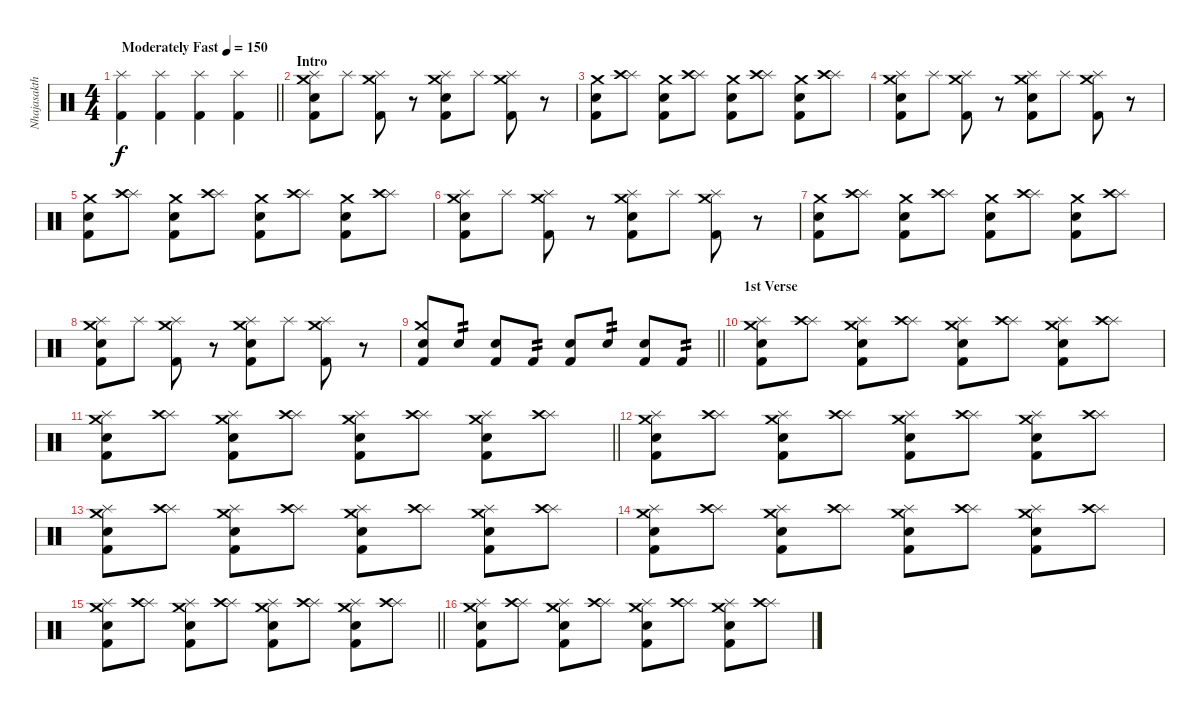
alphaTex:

\track ("Nhajasakthee" "Nhajasakth") {instrument percussion}
\staff {score}
\articulation defaults
\ts (4 4)
\tempo (150 "Moderately Fast")
\clef neutral
\barLineRight lightlight
\ks c
("Splash (hit)" "Kick (hit) 2").4{dy f} ("Splash (hit)" "Kick (hit) 2").4 ("Splash (hit)" "Kick (hit) 2").4 ("Splash (hit)" "Kick (hit) 2").4 |
\section ("" "Intro")
("Splash (hit)" "Crash medium (hit)" "Kick (hit) 2" "Electric Snare (hit)").8 "Splash (hit)".8 ("Splash (hit)" "Crash medium (hit)" "Kick (hit) 2").8 r.8 ("Splash (hit)" "Crash medium (hit)" "Kick (hit) 2" "Electric Snare (hit)").8 "Splash (hit)".8 ("Splash (hit)" "Crash medium (hit)" "Kick (hit) 2").8 r.8 |
("Crash medium (hit)" "Kick (hit) 2" "Electric Snare (hit)").8 ("Splash (hit)" "Crash high (hit)").8 ("Crash medium (hit)" "Kick (hit) 2" "Electric Snare (hit)").8 ("Splash (hit)" "Crash high (hit)").8 ("Crash medium (hit)" "Kick (hit) 2" "Electric Snare (hit)").8 ("Splash (hit)" "Crash high (hit)").8 ("Crash medium (hit)" "Kick (hit) 2" "Electric Snare (hit)").8 ("Splash (hit)" "Crash high (hit)").8 |
("Splash (hit)" "Crash medium (hit)" "Kick (hit) 2" "Electric Snare (hit)").8 "Splash (hit)".8 ("Splash (hit)" "Crash medium (hit)" "Kick (hit) 2").8 r.8 ("Splash (hit)" "Crash medium (hit)" "Kick (hit) 2" "Electric Snare (hit)").8 "Splash (hit)".8 ("Splash (hit)" "Crash medium (hit)" "Kick (hit) 2").8 r.8 |
("Crash medium (hit)" "Kick (hit) 2" "Electric Snare (hit)").8 ("Splash (hit)" "Crash high (hit)").8 ("Crash medium (hit)" "Kick (hit) 2" "Electric Snare (hit)").8 ("Splash (hit)" "Crash high (hit)").8 ("Crash medium (hit)" "Kick (hit) 2" "Electric Snare (hit)").8 ("Splash (hit)" "Crash high (hit)").8 ("Crash medium (hit)" "Kick (hit) 2" "Electric Snare (hit)").8 ("Splash (hit)" "Crash high (hit)").8 |
("Splash (hit)" "Crash medium (hit)" "Kick (hit) 2" "Electric Snare (hit)").8 "Splash (hit)".8 ("Splash (hit)" "Crash medium (hit)" "Kick (hit) 2").8 r.8 ("Splash (hit)" "Crash medium (hit)" "Kick (hit) 2" "Electric Snare (hit)").8 "Splash (hit)".8 ("Splash (hit)" "Crash medium (hit)" "Kick (hit) 2").8 r.8 |
("Crash medium (hit)" "Kick (hit) 2" "Electric Snare (hit)").8 ("Splash (hit)" "Crash high (hit)").8 ("Crash medium (hit)" "Kick (hit) 2" "Electric Snare (hit)").8 ("Splash (hit)" "Crash high (hit)").8 ("Crash medium (hit)" "Kick (hit) 2" "Electric Snare (hit)").8 ("Splash (hit)" "Crash high (hit)").8 ("Crash medium (hit)" "Kick (hit) 2" "Electric Snare (hit)").8 ("Splash (hit)" "Crash high (hit)").8 |
("Splash (hit)" "Crash medium (hit)" "Kick (hit) 2" "Electric Snare (hit)").8 "Splash (hit)".8 ("Splash (hit)" "Crash medium (hit)" "Kick (hit) 2").8 r.8 ("Splash (hit)" "Crash medium (hit)" "Kick (hit) 2" "Electric Snare (hit)").8 "Splash (hit)".8 ("Splash (hit)" "Crash medium (hit)" "Kick (hit) 2").8 r.8 |
\barLineRight lightlight
("Crash medium (hit)" "Kick (hit) 2" "Electric Snare (hit)").8 "Electric Snare (hit)".8{tp 2} ("Kick (hit) 2" "Electric Snare (hit)").8 "Kick (hit) 2".8{tp 2} ("Kick (hit) 2" "Electric Snare (hit)").8 "Electric Snare (hit)".8{tp 2} ("Kick (hit) 2" "Electric Snare (hit)").8 "Kick (hit) 2".8{tp 2} |
\section ("" "1st Verse")
("Splash (hit)" "Crash medium (hit)" "Kick (hit) 2" "Electric Snare (hit)").8 ("Splash (hit)" "Crash high (hit)").8 ("Splash (hit)" "Crash medium (hit)" "Kick (hit) 2" "Electric Snare (hit)").8 ("Splash (hit)" "Crash high (hit)").8 ("Splash (hit)" "Crash medium (hit)" "Kick (hit) 2" "Electric Snare (hit)").8 ("Splash (hit)" "Crash high (hit)").8 ("Splash (hit)" "Crash medium (hit)" "Kick (hit) 2" "Electric Snare (hit)").8 ("Splash (hit)" "Crash high (hit)").8 |
\barLineRight lightlight
("Splash (hit)" "Crash medium (hit)" "Kick (hit) 2" "Electric Snare (hit)").8 ("Splash (hit)" "Crash high (hit)").8 ("Splash (hit)" "Crash medium (hit)" "Kick (hit) 2" "Electric Snare (hit)").8 ("Splash (hit)" "Crash high (hit)").8 ("Splash (hit)" "Crash medium (hit)" "Kick (hit) 2" "Electric Snare (hit)").8 ("Splash (hit)" "Crash high (hit)").8 ("Splash (hit)" "Crash medium (hit)" "Kick (hit) 2" "Electric Snare (hit)").8 ("Splash (hit)" "Crash high (hit)").8 |
("Splash (hit)" "Crash medium (hit)" "Kick (hit) 2" "Electric Snare (hit)").8 ("Splash (hit)" "Crash high (hit)").8 ("Splash (hit)" "Crash medium (hit)" "Kick (hit) 2" "Electric Snare (hit)").8 ("Splash (hit)" "Crash high (hit)").8 ("Splash (hit)" "Crash medium (hit)" "Kick (hit) 2" "Electric Snare (hit)").8 ("Splash (hit)" "Crash high (hit)").8 ("Splash (hit)" "Crash medium (hit)" "Kick (hit) 2" "Electric Snare (hit)").8 ("Splash (hit)" "Crash high (hit)").8 |
("Splash (hit)" "Crash medium (hit)" "Kick (hit) 2" "Electric Snare (hit)").8 ("Splash (hit)" "Crash high (hit)").8 ("Splash (hit)" "Crash medium (hit)" "Kick (hit) 2" "Electric Snare (hit)").8 ("Splash (hit)" "Crash high (hit)").8 ("Splash (hit)" "Crash medium (hit)" "Kick (hit) 2" "Electric Snare (hit)").8 ("Splash (hit)" "Crash high (hit)").8 ("Splash (hit)" "Crash medium (hit)" "Kick (hit) 2" "Electric Snare (hit)").8 ("Splash (hit)" "Crash high (hit)").8 |
("Splash (hit)" "Crash medium (hit)" "Kick (hit) 2" "Electric Snare (hit)").8 ("Splash (hit)" "Crash high (hit)").8 ("Splash (hit)" "Crash medium (hit)" "Kick (hit) 2" "Electric Snare (hit)").8 ("Splash (hit)" "Crash high (hit)").8 ("Splash (hit)" "Crash medium (hit)" "Kick (hit) 2" "Electric Snare (hit)").8 ("Splash (hit)" "Crash high (hit)").8 ("Splash (hit)" "Crash medium (hit)" "Kick (hit) 2" "Electric Snare (hit)").8 ("Splash (hit)" "Crash high (hit)").8 |
\barLineRight lightlight
("Splash (hit)" "Crash medium (hit)" "Kick (hit) 2" "Electric Snare (hit)").8 ("Splash (hit)" "Crash high (hit)").8 ("Splash (hit)" "Crash medium (hit)" "Kick (hit) 2" "Electric Snare (hit)").8 ("Splash (hit)" "Crash high (hit)").8 ("Splash (hit)" "Crash medium (hit)" "Kick (hit) 2" "Electric Snare (hit)").8 ("Splash (hit)" "Crash high (hit)").8 ("Splash (hit)" "Crash medium (hit)" "Kick (hit) 2" "Electric Snare (hit)").8 ("Splash (hit)" "Crash high (hit)").8 |
("Splash (hit)" "Crash medium (hit)" "Kick (hit) 2" "Electric Snare (hit)").8 ("Splash (hit)" "Crash high (hit)").8 ("Splash (hit)" "Crash medium (hit)" "Kick (hit) 2" "Electric Snare (hit)").8 ("Splash (hit)" "Crash high (hit)").8 ("Splash (hit)" "Crash medium (hit)" "Kick (hit) 2" "Electric Snare (hit)").8 ("Splash (hit)" "Crash high (hit)").8 ("Splash (hit)" "Crash medium (hit)" "Kick (hit) 2" "Electric Snare (hit)").8 ("Splash (hit)" "Crash high (hit)").8
